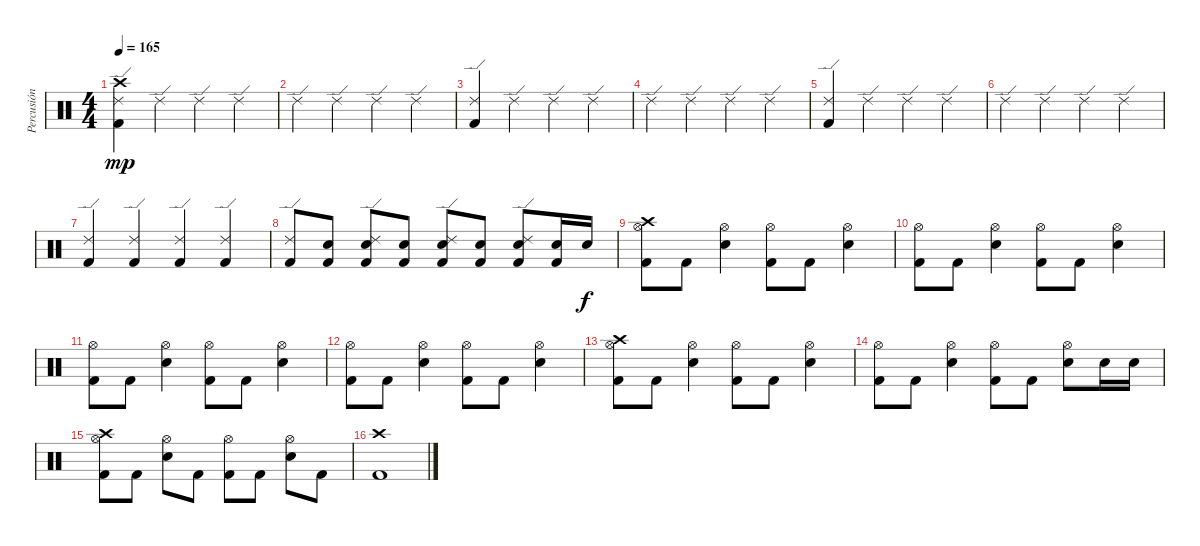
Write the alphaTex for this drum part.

\track ("Percusión" "Percusión") {instrument percussion}
\staff {score}
\articulation defaults
\ts (4 4)
\tempo 165
\clef neutral
\ks c
("Crash high (hit)" "Ride (edge) 2" "Kick (hit) 2").4{dy mp} "Ride (edge) 2".4 "Ride (edge) 2".4 "Ride (edge) 2".4 |
"Ride (edge) 2".4 "Ride (edge) 2".4 "Ride (edge) 2".4 "Ride (edge) 2".4 |
("Ride (edge) 2" "Kick (hit) 2").4 "Ride (edge) 2".4 "Ride (edge) 2".4 "Ride (edge) 2".4 |
"Ride (edge) 2".4 "Ride (edge) 2".4 "Ride (edge) 2".4 "Ride (edge) 2".4 |
("Ride (edge) 2" "Kick (hit) 2").4 "Ride (edge) 2".4 "Ride (edge) 2".4 "Ride (edge) 2".4 |
"Ride (edge) 2".4 "Ride (edge) 2".4 "Ride (edge) 2".4 "Ride (edge) 2".4 |
("Ride (edge) 2" "Kick (hit) 2").4 ("Ride (edge) 2" "Kick (hit) 2").4 ("Ride (edge) 2" "Kick (hit) 2").4 ("Ride (edge) 2" "Kick (hit) 2").4 |
("Ride (edge) 2" "Kick (hit) 2").8 ("Snare (hit) 2" "Kick (hit) 2").8 ("Ride (edge) 2" "Snare (hit) 2" "Kick (hit) 2").8 ("Snare (hit) 2" "Kick (hit) 2").8 ("Ride (edge) 2" "Snare (hit) 2" "Kick (hit) 2").8 ("Snare (hit) 2" "Kick (hit) 2").8 ("Ride (edge) 2" "Snare (hit) 2" "Kick (hit) 2").8 ("Snare (hit) 2" "Kick (hit) 2").16 "Snare (hit) 2".16{dy f} |
("Crash high (hit)" "Hi-Hat (open)" "Kick (hit) 2").8 "Kick (hit) 2".8 ("Hi-Hat (open)" "Snare (hit) 2").4 ("Hi-Hat (open)" "Kick (hit) 2").8 "Kick (hit) 2".8 ("Hi-Hat (open)" "Snare (hit) 2").4 |
("Hi-Hat (open)" "Kick (hit) 2").8 "Kick (hit) 2".8 ("Hi-Hat (open)" "Snare (hit) 2").4 ("Hi-Hat (open)" "Kick (hit) 2").8 "Kick (hit) 2".8 ("Hi-Hat (open)" "Snare (hit) 2").4 |
("Hi-Hat (open)" "Kick (hit) 2").8 "Kick (hit) 2".8 ("Hi-Hat (open)" "Snare (hit) 2").4 ("Hi-Hat (open)" "Kick (hit) 2").8 "Kick (hit) 2".8 ("Hi-Hat (open)" "Snare (hit) 2").4 |
("Hi-Hat (open)" "Kick (hit) 2").8 "Kick (hit) 2".8 ("Hi-Hat (open)" "Snare (hit) 2").4 ("Hi-Hat (open)" "Kick (hit) 2").8 "Kick (hit) 2".8 ("Hi-Hat (open)" "Snare (hit) 2").4 |
("Crash high (hit)" "Hi-Hat (open)" "Kick (hit) 2").8 "Kick (hit) 2".8 ("Hi-Hat (open)" "Snare (hit) 2").4 ("Hi-Hat (open)" "Kick (hit) 2").8 "Kick (hit) 2".8 ("Hi-Hat (open)" "Snare (hit) 2").4 |
("Hi-Hat (open)" "Kick (hit) 2").8 "Kick (hit) 2".8 ("Hi-Hat (open)" "Snare (hit) 2").4 ("Hi-Hat (open)" "Kick (hit) 2").8 "Kick (hit) 2".8 ("Hi-Hat (open)" "Snare (hit) 2").8 "Snare (hit) 2".16 "Snare (hit) 2".16 |
("Crash high (hit)" "Hi-Hat (open)" "Kick (hit) 2").8 "Kick (hit) 2".8 ("Hi-Hat (open)" "Snare (hit) 2").8 "Kick (hit) 2".8 ("Hi-Hat (open)" "Kick (hit) 2").8 "Kick (hit) 2".8 ("Hi-Hat (open)" "Snare (hit) 2").8 "Kick (hit) 2".8 |
("Crash high (hit)" "Kick (hit) 2").1
